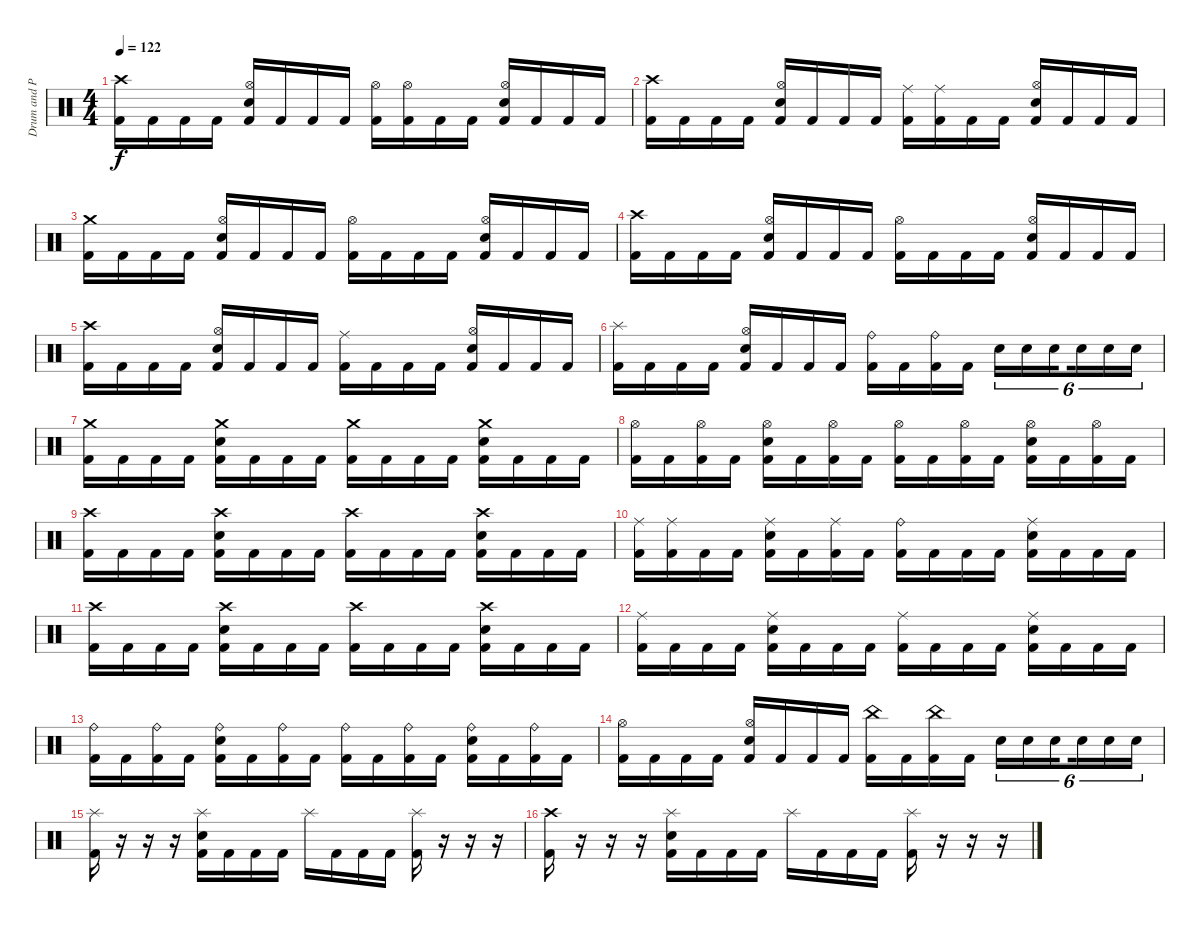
\track ("Drum and Persscusian" "Drum and P") {instrument percussion}
\staff {score}
\articulation defaults
\ts (4 4)
\tempo 122
\clef neutral
\ks c
("Crash high (hit)" "Kick (hit) 2").16{dy f} "Kick (hit) 2".16 "Kick (hit) 2".16 "Kick (hit) 2".16 ("Hi-Hat (open)" "Snare (hit) 2" "Kick (hit) 2").16 "Kick (hit) 2".16 "Kick (hit) 2".16 "Kick (hit) 2".16 ("Hi-Hat (open)" "Kick (hit) 2").16 ("Hi-Hat (open)" "Kick (hit) 2").16 "Kick (hit) 2".16 "Kick (hit) 2".16 ("Hi-Hat (open)" "Snare (hit) 2" "Kick (hit) 2").16 "Kick (hit) 2".16 "Kick (hit) 2".16 "Kick (hit) 2".16 |
("Crash high (hit)" "Kick (hit) 2").16 "Kick (hit) 2".16 "Kick (hit) 2".16 "Kick (hit) 2".16 ("Hi-Hat (open)" "Snare (hit) 2" "Kick (hit) 2").16 "Kick (hit) 2".16 "Kick (hit) 2".16 "Kick (hit) 2".16 ("Ride (middle)" "Kick (hit) 2").16 ("Ride (middle)" "Kick (hit) 2").16 "Kick (hit) 2".16 "Kick (hit) 2".16 ("Hi-Hat (open)" "Snare (hit) 2" "Kick (hit) 2").16 "Kick (hit) 2".16 "Kick (hit) 2".16 "Kick (hit) 2".16 |
("Crash medium (hit)" "Kick (hit) 2").16 "Kick (hit) 2".16 "Kick (hit) 2".16 "Kick (hit) 2".16 ("Hi-Hat (open)" "Snare (hit) 2" "Kick (hit) 2").16 "Kick (hit) 2".16 "Kick (hit) 2".16 "Kick (hit) 2".16 ("Hi-Hat (open)" "Kick (hit) 2").16 "Kick (hit) 2".16 "Kick (hit) 2".16 "Kick (hit) 2".16 ("Hi-Hat (open)" "Snare (hit) 2" "Kick (hit) 2").16 "Kick (hit) 2".16 "Kick (hit) 2".16 "Kick (hit) 2".16 |
("Crash high (hit)" "Kick (hit) 2").16 "Kick (hit) 2".16 "Kick (hit) 2".16 "Kick (hit) 2".16 ("Hi-Hat (open)" "Snare (hit) 2" "Kick (hit) 2").16 "Kick (hit) 2".16 "Kick (hit) 2".16 "Kick (hit) 2".16 ("Hi-Hat (open)" "Kick (hit) 2").16 "Kick (hit) 2".16 "Kick (hit) 2".16 "Kick (hit) 2".16 ("Hi-Hat (open)" "Snare (hit) 2" "Kick (hit) 2").16 "Kick (hit) 2".16 "Kick (hit) 2".16 "Kick (hit) 2".16 |
("Crash high (hit)" "Kick (hit) 2").16 "Kick (hit) 2".16 "Kick (hit) 2".16 "Kick (hit) 2".16 ("Hi-Hat (open)" "Snare (hit) 2" "Kick (hit) 2").16 "Kick (hit) 2".16 "Kick (hit) 2".16 "Kick (hit) 2".16 ("Ride (middle)" "Kick (hit) 2").16 "Kick (hit) 2".16 "Kick (hit) 2".16 "Kick (hit) 2".16 ("Hi-Hat (open)" "Snare (hit) 2" "Kick (hit) 2").16 "Kick (hit) 2".16 "Kick (hit) 2".16 "Kick (hit) 2".16 |
("Splash (hit)" "Kick (hit) 2").16 "Kick (hit) 2".16 "Kick (hit) 2".16 "Kick (hit) 2".16 ("Hi-Hat (open)" "Snare (hit) 2" "Kick (hit) 2").16 "Kick (hit) 2".16 "Kick (hit) 2".16 "Kick (hit) 2".16 ("Ride (bell)" "Kick (hit) 2").16 "Kick (hit) 2".16 ("Ride (bell)" "Kick (hit) 2").16 "Kick (hit) 2".16 "Snare (hit) 2".16{tu (6 4)} "Snare (hit) 2".16{tu (6 4)} "Snare (hit) 2".16{tu (6 4) beam splitsecondary} "Snare (hit) 2".16{tu (6 4)} "Snare (hit) 2".16{tu (6 4)} "Snare (hit) 2".16{tu (6 4)} |
("Crash medium (hit)" "Kick (hit) 2").16 "Kick (hit) 2".16 "Kick (hit) 2".16 "Kick (hit) 2".16 ("Crash medium (hit)" "Snare (hit) 2" "Kick (hit) 2").16 "Kick (hit) 2".16 "Kick (hit) 2".16 "Kick (hit) 2".16 ("Crash medium (hit)" "Kick (hit) 2").16 "Kick (hit) 2".16 "Kick (hit) 2".16 "Kick (hit) 2".16 ("Crash medium (hit)" "Snare (hit) 2" "Kick (hit) 2").16 "Kick (hit) 2".16 "Kick (hit) 2".16 "Kick (hit) 2".16 |
("Hi-Hat (open)" "Kick (hit) 2").16 "Kick (hit) 2".16 ("Hi-Hat (open)" "Kick (hit) 2").16 "Kick (hit) 2".16 ("Hi-Hat (open)" "Snare (hit) 2" "Kick (hit) 2").16 "Kick (hit) 2".16 ("Hi-Hat (open)" "Kick (hit) 2").16 "Kick (hit) 2".16 ("Hi-Hat (open)" "Kick (hit) 2").16 "Kick (hit) 2".16 ("Hi-Hat (open)" "Kick (hit) 2").16 "Kick (hit) 2".16 ("Hi-Hat (open)" "Snare (hit) 2" "Kick (hit) 2").16 "Kick (hit) 2".16 ("Hi-Hat (open)" "Kick (hit) 2").16 "Kick (hit) 2".16 |
("Crash high (hit)" "Kick (hit) 2").16 "Kick (hit) 2".16 "Kick (hit) 2".16 "Kick (hit) 2".16 ("Crash high (hit)" "Snare (hit) 2" "Kick (hit) 2").16 "Kick (hit) 2".16 "Kick (hit) 2".16 "Kick (hit) 2".16 ("Crash high (hit)" "Kick (hit) 2").16 "Kick (hit) 2".16 "Kick (hit) 2".16 "Kick (hit) 2".16 ("Crash high (hit)" "Snare (hit) 2" "Kick (hit) 2").16 "Kick (hit) 2".16 "Kick (hit) 2".16 "Kick (hit) 2".16 |
("Ride (middle)" "Kick (hit) 2").16 ("Ride (middle)" "Kick (hit) 2").16 "Kick (hit) 2".16 "Kick (hit) 2".16 ("Ride (middle)" "Snare (hit) 2" "Kick (hit) 2").16 "Kick (hit) 2".16 ("Ride (middle)" "Kick (hit) 2").16 "Kick (hit) 2".16 ("Ride (bell)" "Kick (hit) 2").16 "Kick (hit) 2".16 "Kick (hit) 2".16 "Kick (hit) 2".16 ("Ride (middle)" "Snare (hit) 2" "Kick (hit) 2").16 "Kick (hit) 2".16 "Kick (hit) 2".16 "Kick (hit) 2".16 |
("Crash high (hit)" "Kick (hit) 2").16 "Kick (hit) 2".16 "Kick (hit) 2".16 "Kick (hit) 2".16 ("Crash high (hit)" "Snare (hit) 2" "Kick (hit) 2").16 "Kick (hit) 2".16 "Kick (hit) 2".16 "Kick (hit) 2".16 ("Crash high (hit)" "Kick (hit) 2").16 "Kick (hit) 2".16 "Kick (hit) 2".16 "Kick (hit) 2".16 ("Crash high (hit)" "Snare (hit) 2" "Kick (hit) 2").16 "Kick (hit) 2".16 "Kick (hit) 2".16 "Kick (hit) 2".16 |
("Ride (middle)" "Kick (hit) 2").16 "Kick (hit) 2".16 "Kick (hit) 2".16 "Kick (hit) 2".16 ("Ride (middle)" "Snare (hit) 2" "Kick (hit) 2").16 "Kick (hit) 2".16 "Kick (hit) 2".16 "Kick (hit) 2".16 ("Ride (middle)" "Kick (hit) 2").16 "Kick (hit) 2".16 "Kick (hit) 2".16 "Kick (hit) 2".16 ("Ride (middle)" "Snare (hit) 2" "Kick (hit) 2").16 "Kick (hit) 2".16 "Kick (hit) 2".16 "Kick (hit) 2".16 |
("Ride (bell)" "Kick (hit) 2").16 "Kick (hit) 2".16 ("Ride (bell)" "Kick (hit) 2").16 "Kick (hit) 2".16 ("Ride (bell)" "Snare (hit) 2" "Kick (hit) 2").16 "Kick (hit) 2".16 ("Ride (bell)" "Kick (hit) 2").16 "Kick (hit) 2".16 ("Ride (bell)" "Kick (hit) 2").16 "Kick (hit) 2".16 ("Ride (bell)" "Kick (hit) 2").16 "Kick (hit) 2".16 ("Ride (bell)" "Snare (hit) 2" "Kick (hit) 2").16 "Kick (hit) 2".16 ("Ride (bell)" "Kick (hit) 2").16 "Kick (hit) 2".16 |
("Hi-Hat (open)" "Kick (hit) 2").16 "Kick (hit) 2".16 "Kick (hit) 2".16 "Kick (hit) 2".16 ("Hi-Hat (open)" "Snare (hit) 2" "Kick (hit) 2").16 "Kick (hit) 2".16 "Kick (hit) 2".16 "Kick (hit) 2".16 ("China (hit)" "Kick (hit) 2").16 "Kick (hit) 2".16 ("China (hit)" "Kick (hit) 2").16 "Kick (hit) 2".16 "Snare (hit) 2".16{tu (6 4)} "Snare (hit) 2".16{tu (6 4)} "Snare (hit) 2".16{tu (6 4) beam splitsecondary} "Snare (hit) 2".16{tu (6 4)} "Snare (hit) 2".16{tu (6 4)} "Snare (hit) 2".16{tu (6 4)} |
("Splash (hit)" "Kick (hit) 2").16 r.16 r.16 r.16 ("Splash (hit)" "Snare (hit) 2" "Kick (hit) 2").16 "Kick (hit) 2".16 "Kick (hit) 2".16 "Kick (hit) 2".16 "Splash (hit)".16 "Kick (hit) 2".16 "Kick (hit) 2".16 "Kick (hit) 2".16 ("Splash (hit)" "Kick (hit) 2").16 r.16 r.16 r.16 |
("Crash high (hit)" "Kick (hit) 2").16 r.16 r.16 r.16 ("Splash (hit)" "Snare (hit) 2" "Kick (hit) 2").16 "Kick (hit) 2".16 "Kick (hit) 2".16 "Kick (hit) 2".16 "Splash (hit)".16 "Kick (hit) 2".16 "Kick (hit) 2".16 "Kick (hit) 2".16 ("Splash (hit)" "Kick (hit) 2").16 r.16 r.16 r.16
